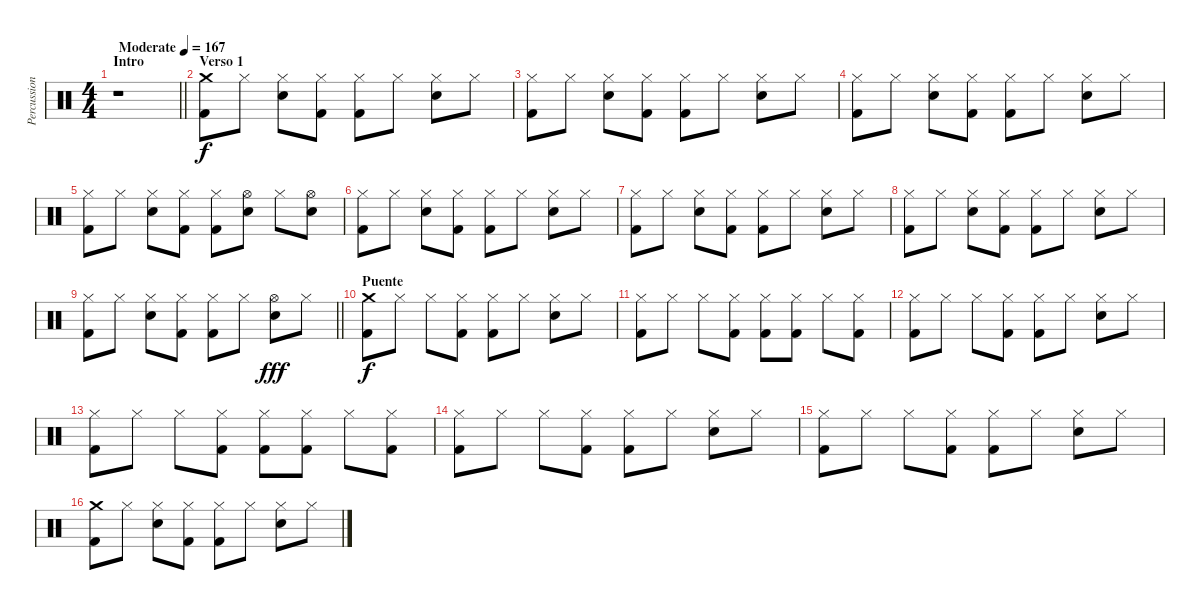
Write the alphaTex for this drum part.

\track ("Percussion" "Percussion") {instrument percussion}
\staff {score}
\articulation defaults
\ts (4 4)
\section ("" "Intro")
\tempo (167 "Moderate")
\clef neutral
\barLineRight lightlight
\ks c
r.1{dy f} |
\section ("" "Verso 1")
("Crash medium (hit)" "Kick (hit) 2").8 "Hi-Hat (closed)".8 ("Hi-Hat (closed)" "Snare (hit) 2").8 ("Hi-Hat (closed)" "Kick (hit) 2").8 ("Hi-Hat (closed)" "Kick (hit) 2").8 "Hi-Hat (closed)".8 ("Hi-Hat (closed)" "Snare (hit) 2").8 "Hi-Hat (closed)".8 |
("Hi-Hat (closed)" "Kick (hit) 2").8 "Hi-Hat (closed)".8 ("Hi-Hat (closed)" "Snare (hit) 2").8 ("Hi-Hat (closed)" "Kick (hit) 2").8 ("Hi-Hat (closed)" "Kick (hit) 2").8 "Hi-Hat (closed)".8 ("Hi-Hat (closed)" "Snare (hit) 2").8 "Hi-Hat (closed)".8 |
("Hi-Hat (closed)" "Kick (hit) 2").8 "Hi-Hat (closed)".8 ("Hi-Hat (closed)" "Snare (hit) 2").8 ("Hi-Hat (closed)" "Kick (hit) 2").8 ("Hi-Hat (closed)" "Kick (hit) 2").8 "Hi-Hat (closed)".8 ("Hi-Hat (closed)" "Snare (hit) 2").8 "Hi-Hat (closed)".8 |
("Hi-Hat (closed)" "Kick (hit) 2").8 "Hi-Hat (closed)".8 ("Hi-Hat (closed)" "Snare (hit) 2").8 ("Hi-Hat (closed)" "Kick (hit) 2").8 ("Hi-Hat (closed)" "Kick (hit) 2").8 ("Hi-Hat (open)" "Snare (hit) 2").8 "Hi-Hat (closed)".8 ("Hi-Hat (open)" "Snare (hit) 2").8 |
("Hi-Hat (closed)" "Kick (hit) 2").8 "Hi-Hat (closed)".8 ("Hi-Hat (closed)" "Snare (hit) 2").8 ("Hi-Hat (closed)" "Kick (hit) 2").8 ("Hi-Hat (closed)" "Kick (hit) 2").8 "Hi-Hat (closed)".8 ("Hi-Hat (closed)" "Snare (hit) 2").8 "Hi-Hat (closed)".8 |
("Hi-Hat (closed)" "Kick (hit) 2").8 "Hi-Hat (closed)".8 ("Hi-Hat (closed)" "Snare (hit) 2").8 ("Hi-Hat (closed)" "Kick (hit) 2").8 ("Hi-Hat (closed)" "Kick (hit) 2").8 "Hi-Hat (closed)".8 ("Hi-Hat (closed)" "Snare (hit) 2").8 "Hi-Hat (closed)".8 |
("Hi-Hat (closed)" "Kick (hit) 2").8 "Hi-Hat (closed)".8 ("Hi-Hat (closed)" "Snare (hit) 2").8 ("Hi-Hat (closed)" "Kick (hit) 2").8 ("Hi-Hat (closed)" "Kick (hit) 2").8 "Hi-Hat (closed)".8 ("Hi-Hat (closed)" "Snare (hit) 2").8 "Hi-Hat (closed)".8 |
\barLineRight lightlight
("Hi-Hat (closed)" "Kick (hit) 2").8 "Hi-Hat (closed)".8 ("Hi-Hat (closed)" "Snare (hit) 2").8 ("Hi-Hat (closed)" "Kick (hit) 2").8 ("Hi-Hat (closed)" "Kick (hit) 2").8 "Hi-Hat (closed)".8 ("Hi-Hat (open)" "Snare (hit) 2").8{dy fff} "Hi-Hat (closed)".8 |
\section ("" "Puente")
("Crash medium (hit)" "Kick (hit) 2").8{dy f} "Hi-Hat (closed)".8 "Hi-Hat (closed)".8 ("Hi-Hat (closed)" "Kick (hit) 2").8 ("Hi-Hat (closed)" "Kick (hit) 2").8 "Hi-Hat (closed)".8 ("Hi-Hat (closed)" "Snare (hit) 2").8 "Hi-Hat (closed)".8 |
("Hi-Hat (closed)" "Kick (hit) 2").8 "Hi-Hat (closed)".8 "Hi-Hat (closed)".8 ("Hi-Hat (closed)" "Kick (hit) 2").8 ("Hi-Hat (closed)" "Kick (hit) 2").8 ("Hi-Hat (closed)" "Kick (hit) 2").8 "Hi-Hat (closed)".8 ("Hi-Hat (closed)" "Kick (hit) 2").8 |
("Hi-Hat (closed)" "Kick (hit) 2").8 "Hi-Hat (closed)".8 "Hi-Hat (closed)".8 ("Hi-Hat (closed)" "Kick (hit) 2").8 ("Hi-Hat (closed)" "Kick (hit) 2").8 "Hi-Hat (closed)".8 ("Hi-Hat (closed)" "Snare (hit) 2").8 "Hi-Hat (closed)".8 |
("Hi-Hat (closed)" "Kick (hit) 2").8 "Hi-Hat (closed)".8 "Hi-Hat (closed)".8 ("Hi-Hat (closed)" "Kick (hit) 2").8 ("Hi-Hat (closed)" "Kick (hit) 2").8 ("Hi-Hat (closed)" "Kick (hit) 2").8 "Hi-Hat (closed)".8 ("Hi-Hat (closed)" "Kick (hit) 2").8 |
("Hi-Hat (closed)" "Kick (hit) 2").8 "Hi-Hat (closed)".8 "Hi-Hat (closed)".8 ("Hi-Hat (closed)" "Kick (hit) 2").8 ("Hi-Hat (closed)" "Kick (hit) 2").8 "Hi-Hat (closed)".8 ("Hi-Hat (closed)" "Snare (hit) 2").8 "Hi-Hat (closed)".8 |
("Hi-Hat (closed)" "Kick (hit) 2").8 "Hi-Hat (closed)".8 "Hi-Hat (closed)".8 ("Hi-Hat (closed)" "Kick (hit) 2").8 ("Hi-Hat (closed)" "Kick (hit) 2").8 "Hi-Hat (closed)".8 ("Hi-Hat (closed)" "Snare (hit) 2").8 "Hi-Hat (closed)".8 |
("Crash medium (hit)" "Kick (hit) 2").8 "Hi-Hat (closed)".8 ("Hi-Hat (closed)" "Snare (hit) 2").8 ("Hi-Hat (closed)" "Kick (hit) 2").8 ("Hi-Hat (closed)" "Kick (hit) 2").8 "Hi-Hat (closed)".8 ("Hi-Hat (closed)" "Snare (hit) 2").8 "Hi-Hat (closed)".8
